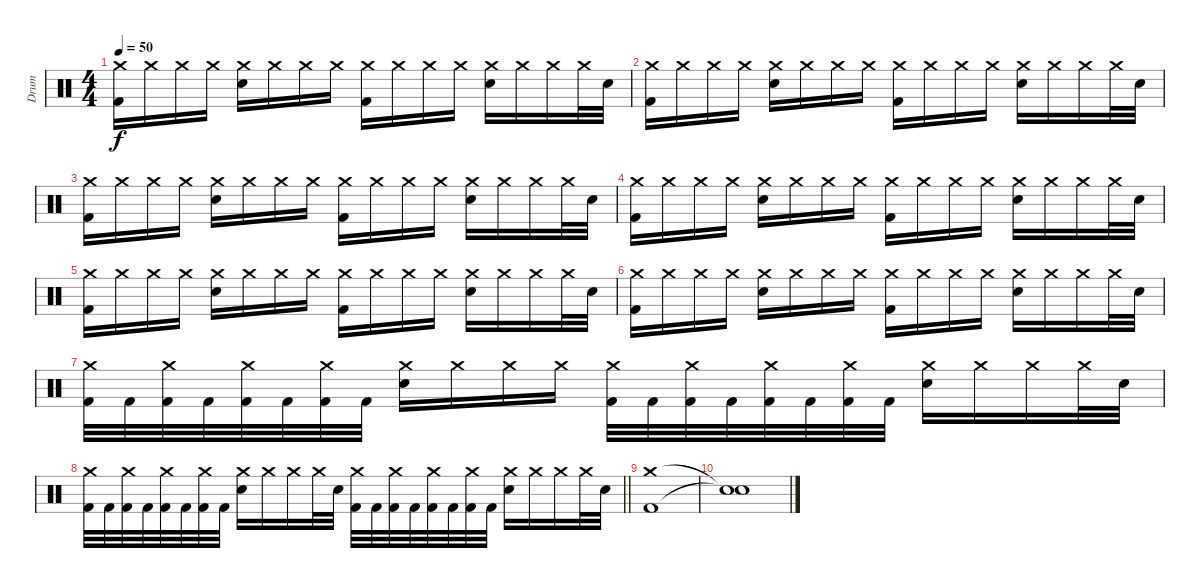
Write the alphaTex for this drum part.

\track ("Drum " "Drum ") {instrument percussion}
\staff {score}
\articulation defaults
\ts (4 4)
\tempo 50
\clef neutral
\ks c
("Crash medium (hit)" "Kick (hit) 2").16{dy f} "Crash medium (hit)".16 "Crash medium (hit)".16 "Crash medium (hit)".16 ("Crash medium (hit)" "Electric Snare (hit)").16 "Crash medium (hit)".16 "Crash medium (hit)".16 "Crash medium (hit)".16 ("Crash medium (hit)" "Kick (hit) 2").16 "Crash medium (hit)".16 "Crash medium (hit)".16 "Crash medium (hit)".16 ("Crash medium (hit)" "Electric Snare (hit)").16 "Crash medium (hit)".16 "Crash medium (hit)".16 "Crash medium (hit)".32 "Electric Snare (hit)".32 |
("Crash medium (hit)" "Kick (hit) 2").16 "Crash medium (hit)".16 "Crash medium (hit)".16 "Crash medium (hit)".16 ("Crash medium (hit)" "Electric Snare (hit)").16 "Crash medium (hit)".16 "Crash medium (hit)".16 "Crash medium (hit)".16 ("Crash medium (hit)" "Kick (hit) 2").16 "Crash medium (hit)".16 "Crash medium (hit)".16 "Crash medium (hit)".16 ("Crash medium (hit)" "Electric Snare (hit)").16 "Crash medium (hit)".16 "Crash medium (hit)".16 "Crash medium (hit)".32 "Electric Snare (hit)".32 |
("Crash medium (hit)" "Kick (hit) 2").16 "Crash medium (hit)".16 "Crash medium (hit)".16 "Crash medium (hit)".16 ("Crash medium (hit)" "Electric Snare (hit)").16 "Crash medium (hit)".16 "Crash medium (hit)".16 "Crash medium (hit)".16 ("Crash medium (hit)" "Kick (hit) 2").16 "Crash medium (hit)".16 "Crash medium (hit)".16 "Crash medium (hit)".16 ("Crash medium (hit)" "Electric Snare (hit)").16 "Crash medium (hit)".16 "Crash medium (hit)".16 "Crash medium (hit)".32 "Electric Snare (hit)".32 |
("Crash medium (hit)" "Kick (hit) 2").16 "Crash medium (hit)".16 "Crash medium (hit)".16 "Crash medium (hit)".16 ("Crash medium (hit)" "Electric Snare (hit)").16 "Crash medium (hit)".16 "Crash medium (hit)".16 "Crash medium (hit)".16 ("Crash medium (hit)" "Kick (hit) 2").16 "Crash medium (hit)".16 "Crash medium (hit)".16 "Crash medium (hit)".16 ("Crash medium (hit)" "Electric Snare (hit)").16 "Crash medium (hit)".16 "Crash medium (hit)".16 "Crash medium (hit)".32 "Electric Snare (hit)".32 |
("Crash medium (hit)" "Kick (hit) 2").16 "Crash medium (hit)".16 "Crash medium (hit)".16 "Crash medium (hit)".16 ("Crash medium (hit)" "Electric Snare (hit)").16 "Crash medium (hit)".16 "Crash medium (hit)".16 "Crash medium (hit)".16 ("Crash medium (hit)" "Kick (hit) 2").16 "Crash medium (hit)".16 "Crash medium (hit)".16 "Crash medium (hit)".16 ("Crash medium (hit)" "Electric Snare (hit)").16 "Crash medium (hit)".16 "Crash medium (hit)".16 "Crash medium (hit)".32 "Electric Snare (hit)".32 |
("Crash medium (hit)" "Kick (hit) 2").16 "Crash medium (hit)".16 "Crash medium (hit)".16 "Crash medium (hit)".16 ("Crash medium (hit)" "Electric Snare (hit)").16 "Crash medium (hit)".16 "Crash medium (hit)".16 "Crash medium (hit)".16 ("Crash medium (hit)" "Kick (hit) 2").16 "Crash medium (hit)".16 "Crash medium (hit)".16 "Crash medium (hit)".16 ("Crash medium (hit)" "Electric Snare (hit)").16 "Crash medium (hit)".16 "Crash medium (hit)".16 "Crash medium (hit)".32 "Electric Snare (hit)".32 |
("Crash medium (hit)" "Kick (hit) 2").32 "Kick (hit) 2".32 ("Crash medium (hit)" "Kick (hit) 2").32 "Kick (hit) 2".32 ("Crash medium (hit)" "Kick (hit) 2").32 "Kick (hit) 2".32 ("Crash medium (hit)" "Kick (hit) 2").32 "Kick (hit) 2".32 ("Crash medium (hit)" "Electric Snare (hit)").16 "Crash medium (hit)".16 "Crash medium (hit)".16 "Crash medium (hit)".16 ("Crash medium (hit)" "Kick (hit) 2").32 "Kick (hit) 2".32 ("Crash medium (hit)" "Kick (hit) 2").32 "Kick (hit) 2".32 ("Crash medium (hit)" "Kick (hit) 2").32 "Kick (hit) 2".32 ("Crash medium (hit)" "Kick (hit) 2").32 "Kick (hit) 2".32 ("Crash medium (hit)" "Electric Snare (hit)").16 "Crash medium (hit)".16 "Crash medium (hit)".16 "Crash medium (hit)".32 "Electric Snare (hit)".32 |
\barLineRight lightlight
("Crash medium (hit)" "Kick (hit) 2").32 "Kick (hit) 2".32 ("Crash medium (hit)" "Kick (hit) 2").32 "Kick (hit) 2".32 ("Crash medium (hit)" "Kick (hit) 2").32 "Kick (hit) 2".32 ("Crash medium (hit)" "Kick (hit) 2").32 "Kick (hit) 2".32 ("Crash medium (hit)" "Electric Snare (hit)").16 "Crash medium (hit)".16 "Crash medium (hit)".16 "Crash medium (hit)".32 "Electric Snare (hit)".32 ("Crash medium (hit)" "Kick (hit) 2").32 "Kick (hit) 2".32 ("Crash medium (hit)" "Kick (hit) 2").32 "Kick (hit) 2".32 ("Crash medium (hit)" "Kick (hit) 2").32 "Kick (hit) 2".32 ("Crash medium (hit)" "Kick (hit) 2").32 "Kick (hit) 2".32 ("Crash medium (hit)" "Electric Snare (hit)").16 "Crash medium (hit)".16 "Crash medium (hit)".16 "Crash medium (hit)".32 "Electric Snare (hit)".32 |
\section ("" "")
("Crash medium (hit)" "Kick (hit) 2").1 |
("Snare (hit)"{t} "Snare (hit)"{t}).1
